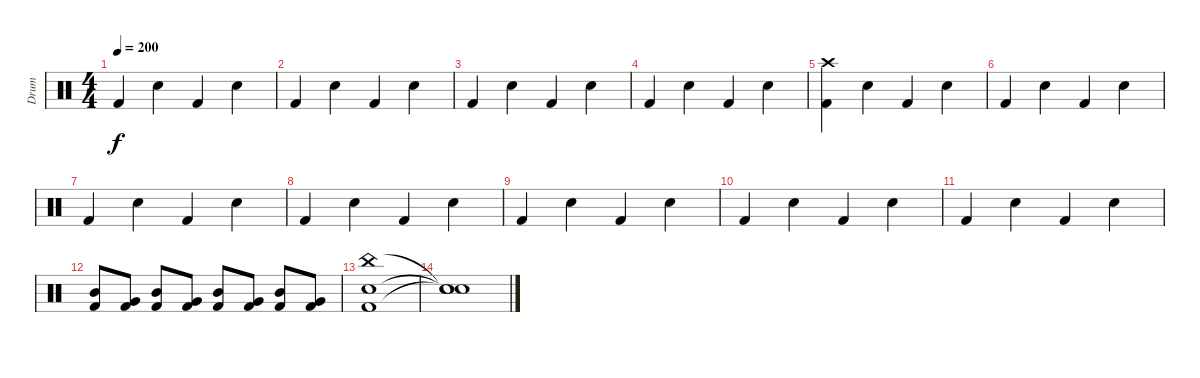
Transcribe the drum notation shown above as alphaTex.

\track ("Drum" "Drum") {instrument percussion}
\staff {score}
\articulation defaults
\ts (4 4)
\tempo 200
\clef neutral
\ks c "Kick (hit) 2".4{dy f} "Electric Snare (hit)".4 "Kick (hit) 2".4 "Electric Snare (hit)".4
|
"Kick (hit) 2".4 "Electric Snare (hit)".4 "Kick (hit) 2".4 "Electric Snare (hit)".4 |
"Kick (hit) 2".4 "Electric Snare (hit)".4 "Kick (hit) 2".4 "Electric Snare (hit)".4 |
"Kick (hit) 2".4 "Electric Snare (hit)".4 "Kick (hit) 2".4 "Electric Snare (hit)".4 |
("Crash high (hit)" "Kick (hit) 2").4 "Electric Snare (hit)".4 "Kick (hit) 2".4 "Electric Snare (hit)".4 |
"Kick (hit) 2".4 "Electric Snare (hit)".4 "Kick (hit) 2".4 "Electric Snare (hit)".4 |
"Kick (hit) 2".4 "Electric Snare (hit)".4 "Kick (hit) 2".4 "Electric Snare (hit)".4 |
"Kick (hit) 2".4 "Electric Snare (hit)".4 "Kick (hit) 2".4 "Electric Snare (hit)".4 |
"Kick (hit) 2".4 "Electric Snare (hit)".4 "Kick (hit) 2".4 "Electric Snare (hit)".4 |
"Kick (hit) 2".4 "Electric Snare (hit)".4 "Kick (hit) 2".4 "Electric Snare (hit)".4 |
"Kick (hit) 2".4 "Electric Snare (hit)".4 "Kick (hit) 2".4 "Electric Snare (hit)".4 |
("Mid Tom (hit)" "Kick (hit) 2").8 ("Very Low Tom (hit)" "Kick (hit) 2").8 ("Mid Tom (hit)" "Kick (hit) 2").8 ("Very Low Tom (hit)" "Kick (hit) 2").8 ("Mid Tom (hit)" "Kick (hit) 2").8 ("Very Low Tom (hit)" "Kick (hit) 2").8 ("Mid Tom (hit)" "Kick (hit) 2").8 ("Very Low Tom (hit)" "Kick (hit) 2").8 |
("China (hit)" "Electric Snare (hit)" "Kick (hit) 2").1 |
("Snare (hit)"{t} "Snare (hit)"{t} "Snare (hit)"{t}).1
